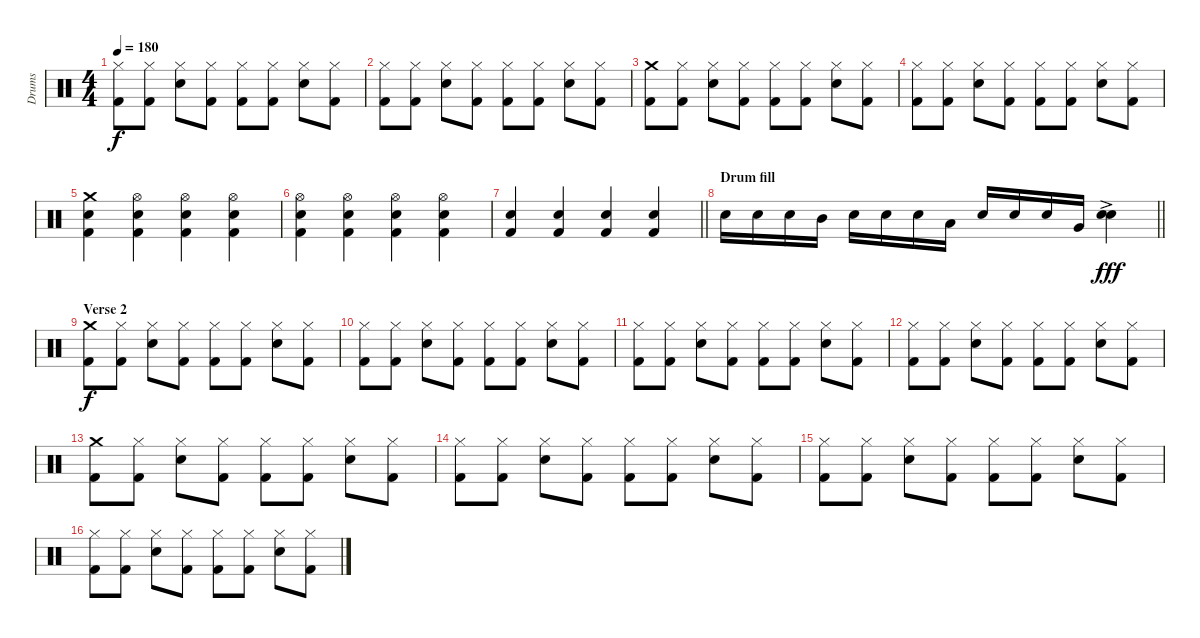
\track ("Drums" "Drums") {instrument percussion}
\staff {score}
\articulation defaults
\ts (4 4)
\tempo 180
\clef neutral
\ks c
("Hi-Hat (closed)" "Kick (hit) 2").8{dy f} ("Hi-Hat (closed)" "Kick (hit) 2").8 ("Hi-Hat (closed)" "Electric Snare (hit)").8 ("Hi-Hat (closed)" "Kick (hit) 2").8 ("Hi-Hat (closed)" "Kick (hit) 2").8 ("Hi-Hat (closed)" "Kick (hit) 2").8 ("Hi-Hat (closed)" "Electric Snare (hit)").8 ("Hi-Hat (closed)" "Kick (hit) 2").8 |
("Hi-Hat (closed)" "Kick (hit) 2").8 ("Hi-Hat (closed)" "Kick (hit) 2").8 ("Hi-Hat (closed)" "Electric Snare (hit)").8 ("Hi-Hat (closed)" "Kick (hit) 2").8 ("Hi-Hat (closed)" "Kick (hit) 2").8 ("Hi-Hat (closed)" "Kick (hit) 2").8 ("Hi-Hat (closed)" "Electric Snare (hit)").8 ("Hi-Hat (closed)" "Kick (hit) 2").8 |
("Crash medium (hit)" "Kick (hit) 2").8 ("Hi-Hat (closed)" "Kick (hit) 2").8 ("Hi-Hat (closed)" "Electric Snare (hit)").8 ("Hi-Hat (closed)" "Kick (hit) 2").8 ("Hi-Hat (closed)" "Kick (hit) 2").8 ("Hi-Hat (closed)" "Kick (hit) 2").8 ("Hi-Hat (closed)" "Electric Snare (hit)").8 ("Hi-Hat (closed)" "Kick (hit) 2").8 |
("Hi-Hat (closed)" "Kick (hit) 2").8 ("Hi-Hat (closed)" "Kick (hit) 2").8 ("Hi-Hat (closed)" "Electric Snare (hit)").8 ("Hi-Hat (closed)" "Kick (hit) 2").8 ("Hi-Hat (closed)" "Kick (hit) 2").8 ("Hi-Hat (closed)" "Kick (hit) 2").8 ("Hi-Hat (closed)" "Electric Snare (hit)").8 ("Hi-Hat (closed)" "Kick (hit) 2").8 |
("Crash medium (hit)" "Electric Snare (hit)" "Kick (hit) 2").4 ("Hi-Hat (open)" "Electric Snare (hit)" "Kick (hit) 2").4 ("Hi-Hat (open)" "Electric Snare (hit)" "Kick (hit) 2").4 ("Hi-Hat (open)" "Electric Snare (hit)" "Kick (hit) 2").4 |
("Hi-Hat (open)" "Electric Snare (hit)" "Kick (hit) 2").4 ("Hi-Hat (open)" "Electric Snare (hit)" "Kick (hit) 2").4 ("Hi-Hat (open)" "Electric Snare (hit)" "Kick (hit) 2").4 ("Hi-Hat (open)" "Electric Snare (hit)" "Kick (hit) 2").4 |
\barLineRight lightlight
("Electric Snare (hit)" "Kick (hit) 2").4 ("Electric Snare (hit)" "Kick (hit) 2").4 ("Electric Snare (hit)" "Kick (hit) 2").4 ("Electric Snare (hit)" "Kick (hit) 2").4 |
\section ("" "Drum fill")
\barLineRight lightlight "Electric Snare (hit)".16 "Electric Snare (hit)".16 "Electric Snare (hit)".16 "Mid Tom (hit)".16 "Electric Snare (hit)".16 "Electric Snare (hit)".16 "Electric Snare (hit)".16 "Low Tom (hit)".16 "Electric Snare (hit)".16 "Electric Snare (hit)".16 "Electric Snare (hit)".16 "Very Low Tom (hit)".16
("Electric Snare (hit)"{ac} "Electric Snare (hit)"{ac}).4{dy fff} |
\section ("" "Verse 2")
("Crash medium (hit)" "Kick (hit) 2").8{dy f} ("Hi-Hat (closed)" "Kick (hit) 2").8 ("Hi-Hat (closed)" "Electric Snare (hit)").8 ("Hi-Hat (closed)" "Kick (hit) 2").8 ("Hi-Hat (closed)" "Kick (hit) 2").8 ("Hi-Hat (closed)" "Kick (hit) 2").8 ("Hi-Hat (closed)" "Electric Snare (hit)").8 ("Hi-Hat (closed)" "Kick (hit) 2").8 |
("Hi-Hat (closed)" "Kick (hit) 2").8 ("Hi-Hat (closed)" "Kick (hit) 2").8 ("Hi-Hat (closed)" "Electric Snare (hit)").8 ("Hi-Hat (closed)" "Kick (hit) 2").8 ("Hi-Hat (closed)" "Kick (hit) 2").8 ("Hi-Hat (closed)" "Kick (hit) 2").8 ("Hi-Hat (closed)" "Electric Snare (hit)").8 ("Hi-Hat (closed)" "Kick (hit) 2").8 |
("Hi-Hat (closed)" "Kick (hit) 2").8 ("Hi-Hat (closed)" "Kick (hit) 2").8 ("Hi-Hat (closed)" "Electric Snare (hit)").8 ("Hi-Hat (closed)" "Kick (hit) 2").8 ("Hi-Hat (closed)" "Kick (hit) 2").8 ("Hi-Hat (closed)" "Kick (hit) 2").8 ("Hi-Hat (closed)" "Electric Snare (hit)").8 ("Hi-Hat (closed)" "Kick (hit) 2").8 |
("Hi-Hat (closed)" "Kick (hit) 2").8 ("Hi-Hat (closed)" "Kick (hit) 2").8 ("Hi-Hat (closed)" "Electric Snare (hit)").8 ("Hi-Hat (closed)" "Kick (hit) 2").8 ("Hi-Hat (closed)" "Kick (hit) 2").8 ("Hi-Hat (closed)" "Kick (hit) 2").8 ("Hi-Hat (closed)" "Electric Snare (hit)").8 ("Hi-Hat (closed)" "Kick (hit) 2").8 |
("Crash medium (hit)" "Kick (hit) 2").8 ("Hi-Hat (closed)" "Kick (hit) 2").8 ("Hi-Hat (closed)" "Electric Snare (hit)").8 ("Hi-Hat (closed)" "Kick (hit) 2").8 ("Hi-Hat (closed)" "Kick (hit) 2").8 ("Hi-Hat (closed)" "Kick (hit) 2").8 ("Hi-Hat (closed)" "Electric Snare (hit)").8 ("Hi-Hat (closed)" "Kick (hit) 2").8 |
("Hi-Hat (closed)" "Kick (hit) 2").8 ("Hi-Hat (closed)" "Kick (hit) 2").8 ("Hi-Hat (closed)" "Electric Snare (hit)").8 ("Hi-Hat (closed)" "Kick (hit) 2").8 ("Hi-Hat (closed)" "Kick (hit) 2").8 ("Hi-Hat (closed)" "Kick (hit) 2").8 ("Hi-Hat (closed)" "Electric Snare (hit)").8 ("Hi-Hat (closed)" "Kick (hit) 2").8 |
("Hi-Hat (closed)" "Kick (hit) 2").8 ("Hi-Hat (closed)" "Kick (hit) 2").8 ("Hi-Hat (closed)" "Electric Snare (hit)").8 ("Hi-Hat (closed)" "Kick (hit) 2").8 ("Hi-Hat (closed)" "Kick (hit) 2").8 ("Hi-Hat (closed)" "Kick (hit) 2").8 ("Hi-Hat (closed)" "Electric Snare (hit)").8 ("Hi-Hat (closed)" "Kick (hit) 2").8 |
("Hi-Hat (closed)" "Kick (hit) 2").8 ("Hi-Hat (closed)" "Kick (hit) 2").8 ("Hi-Hat (closed)" "Electric Snare (hit)").8 ("Hi-Hat (closed)" "Kick (hit) 2").8 ("Hi-Hat (closed)" "Kick (hit) 2").8 ("Hi-Hat (closed)" "Kick (hit) 2").8 ("Hi-Hat (closed)" "Electric Snare (hit)").8 ("Hi-Hat (closed)" "Kick (hit) 2").8
